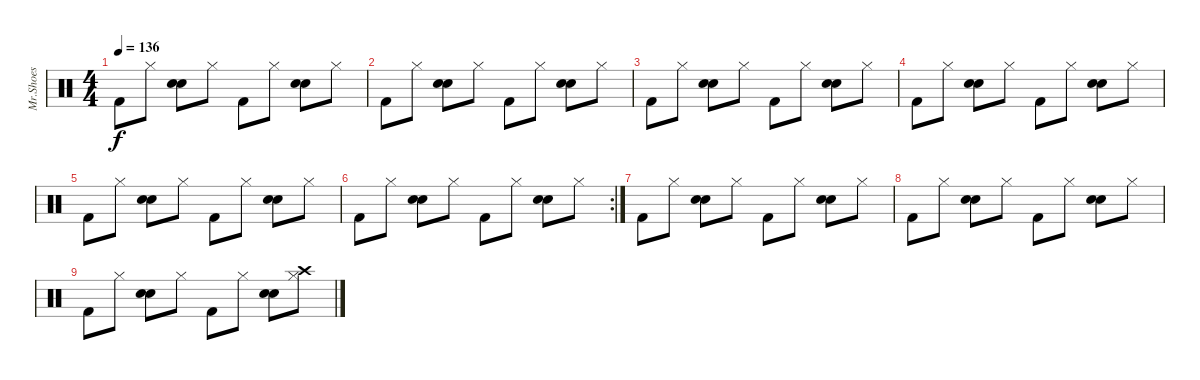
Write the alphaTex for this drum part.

\track ("Mr.Shoes" "Mr.Shoes") {instrument percussion}
\staff {score}
\articulation defaults
\ts (4 4)
\tempo 136
\clef neutral
\ks c "Kick (hit) 2".8{dy f} "Hi-Hat (closed)".8
("Electric Snare (hit)" "Snare (hit) 2").8 "Hi-Hat (closed)".8 "Kick (hit) 2".8 "Hi-Hat (closed)".8 ("Electric Snare (hit)" "Snare (hit) 2").8 "Hi-Hat (closed)".8 |
"Kick (hit) 2".8 "Hi-Hat (closed)".8 ("Electric Snare (hit)" "Snare (hit) 2").8 "Hi-Hat (closed)".8 "Kick (hit) 2".8 "Hi-Hat (closed)".8 ("Electric Snare (hit)" "Snare (hit) 2").8 "Hi-Hat (closed)".8 |
"Kick (hit) 2".8 "Hi-Hat (closed)".8 ("Electric Snare (hit)" "Snare (hit) 2").8 "Hi-Hat (closed)".8 "Kick (hit) 2".8 "Hi-Hat (closed)".8 ("Electric Snare (hit)" "Snare (hit) 2").8 "Hi-Hat (closed)".8 |
"Kick (hit) 2".8 "Hi-Hat (closed)".8 ("Electric Snare (hit)" "Snare (hit) 2").8 "Hi-Hat (closed)".8 "Kick (hit) 2".8 "Hi-Hat (closed)".8 ("Electric Snare (hit)" "Snare (hit) 2").8 "Hi-Hat (closed)".8 |
"Kick (hit) 2".8 "Hi-Hat (closed)".8 ("Electric Snare (hit)" "Snare (hit) 2").8 "Hi-Hat (closed)".8 "Kick (hit) 2".8 "Hi-Hat (closed)".8 ("Electric Snare (hit)" "Snare (hit) 2").8 "Hi-Hat (closed)".8 |
\rc 2 "Kick (hit) 2".8 "Hi-Hat (closed)".8
("Electric Snare (hit)" "Snare (hit) 2").8 "Hi-Hat (closed)".8 "Kick (hit) 2".8 "Hi-Hat (closed)".8 ("Electric Snare (hit)" "Snare (hit) 2").8 "Hi-Hat (closed)".8 |
"Kick (hit) 2".8 "Hi-Hat (closed)".8 ("Electric Snare (hit)" "Snare (hit) 2").8 "Hi-Hat (closed)".8 "Kick (hit) 2".8 "Hi-Hat (closed)".8 ("Electric Snare (hit)" "Snare (hit) 2").8 "Hi-Hat (closed)".8 |
"Kick (hit) 2".8 "Hi-Hat (closed)".8 ("Electric Snare (hit)" "Snare (hit) 2").8 "Hi-Hat (closed)".8 "Kick (hit) 2".8 "Hi-Hat (closed)".8 ("Electric Snare (hit)" "Snare (hit) 2").8 "Hi-Hat (closed)".8 |
"Kick (hit) 2".8 "Hi-Hat (closed)".8 ("Electric Snare (hit)" "Snare (hit) 2").8 "Hi-Hat (closed)".8 "Kick (hit) 2".8 "Hi-Hat (closed)".8 ("Electric Snare (hit)" "Snare (hit) 2").8 ("Hi-Hat (closed)" "Crash high (hit)").8
